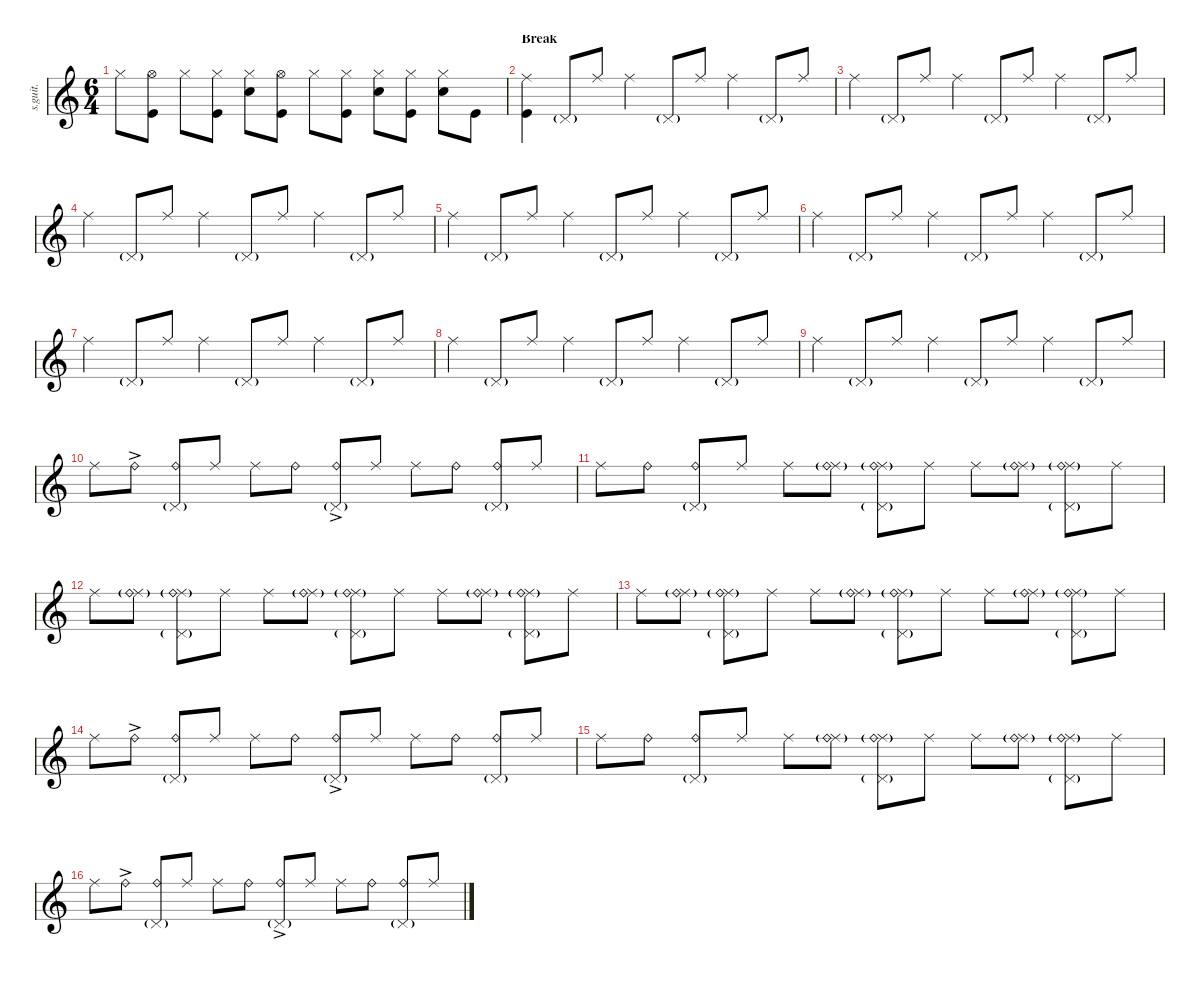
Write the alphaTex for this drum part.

\defaultSystemsLayout 4
\hideDynamics
\bracketExtendMode nobrackets
\track ("Steve Lamos" "s.guit.") {instrument percussion}
\staff {score}
\articulation defaults
\ts (6 4)
\tempo (144 hide)
\clef g2
\ks c "Hi-Hat (closed)".8{lyrics (0 "") lyrics (1 "") lyrics (2 "") lyrics (3 "") lyrics (4 "") dy mf}
("Hi-Hat (open)" "Kick (hit)").8{lyrics (0 "") lyrics (1 "") lyrics (2 "") lyrics (3 "") lyrics (4 "")} "Hi-Hat (closed)".8{lyrics (0 "") lyrics (1 "") lyrics (2 "") lyrics (3 "") lyrics (4 "")} ("Hi-Hat (closed)" "Kick (hit)").8{lyrics (0 "") lyrics (1 "") lyrics (2 "") lyrics (3 "") lyrics (4 "")} ("Hi-Hat (closed)" "Snare (hit) 2").8{lyrics (0 "") lyrics (1 "") lyrics (2 "") lyrics (3 "") lyrics (4 "")} ("Hi-Hat (open)" "Kick (hit)").8{lyrics (0 "") lyrics (1 "") lyrics (2 "") lyrics (3 "") lyrics (4 "")} "Hi-Hat (closed)".8{lyrics (0 "") lyrics (1 "") lyrics (2 "") lyrics (3 "") lyrics (4 "")} ("Hi-Hat (closed)" "Kick (hit)").8{lyrics (0 "") lyrics (1 "") lyrics (2 "") lyrics (3 "") lyrics (4 "")} ("Hi-Hat (closed)" "Snare (hit) 2").8{lyrics (0 "") lyrics (1 "") lyrics (2 "") lyrics (3 "") lyrics (4 "")} ("Hi-Hat (closed)" "Kick (hit)").8{lyrics (0 "") lyrics (1 "") lyrics (2 "") lyrics (3 "") lyrics (4 "") dy f} ("Hi-Hat (closed)" "Snare (hit) 2").8{lyrics (0 "") lyrics (1 "") lyrics (2 "") lyrics (3 "") lyrics (4 "")} "Kick (hit)".8{lyrics (0 "") lyrics (1 "") lyrics (2 "") lyrics (3 "") lyrics (4 "")} |
\section ("" "Break")
("Ride (middle)" "Kick (hit)").4{lyrics (0 "") lyrics (1 "") lyrics (2 "") lyrics (3 "") lyrics (4 "")} "Pedal Hi-Hat (hit)"{g}.8{lyrics (0 "") lyrics (1 "") lyrics (2 "") lyrics (3 "") lyrics (4 "")} "Ride (middle)".8{lyrics (0 "") lyrics (1 "") lyrics (2 "") lyrics (3 "") lyrics (4 "")} "Ride (middle)".4{lyrics (0 "") lyrics (1 "") lyrics (2 "") lyrics (3 "") lyrics (4 "")} "Pedal Hi-Hat (hit)"{g}.8{lyrics (0 "") lyrics (1 "") lyrics (2 "") lyrics (3 "") lyrics (4 "")} "Ride (middle)".8{lyrics (0 "") lyrics (1 "") lyrics (2 "") lyrics (3 "") lyrics (4 "")} "Ride (middle)".4{lyrics (0 "") lyrics (1 "") lyrics (2 "") lyrics (3 "") lyrics (4 "")} "Pedal Hi-Hat (hit)"{g}.8{lyrics (0 "") lyrics (1 "") lyrics (2 "") lyrics (3 "") lyrics (4 "")} "Ride (middle)".8{lyrics (0 "") lyrics (1 "") lyrics (2 "") lyrics (3 "") lyrics (4 "")} |
"Ride (middle)".4{lyrics (0 "") lyrics (1 "") lyrics (2 "") lyrics (3 "") lyrics (4 "")} "Pedal Hi-Hat (hit)"{g}.8{lyrics (0 "") lyrics (1 "") lyrics (2 "") lyrics (3 "") lyrics (4 "")} "Ride (middle)".8{lyrics (0 "") lyrics (1 "") lyrics (2 "") lyrics (3 "") lyrics (4 "")} "Ride (middle)".4{lyrics (0 "") lyrics (1 "") lyrics (2 "") lyrics (3 "") lyrics (4 "")} "Pedal Hi-Hat (hit)"{g}.8{lyrics (0 "") lyrics (1 "") lyrics (2 "") lyrics (3 "") lyrics (4 "")} "Ride (middle)".8{lyrics (0 "") lyrics (1 "") lyrics (2 "") lyrics (3 "") lyrics (4 "")} "Ride (middle)".4{lyrics (0 "") lyrics (1 "") lyrics (2 "") lyrics (3 "") lyrics (4 "")} "Pedal Hi-Hat (hit)"{g}.8{lyrics (0 "") lyrics (1 "") lyrics (2 "") lyrics (3 "") lyrics (4 "")} "Ride (middle)".8{lyrics (0 "") lyrics (1 "") lyrics (2 "") lyrics (3 "") lyrics (4 "")} |
"Ride (middle)".4{lyrics (0 "") lyrics (1 "") lyrics (2 "") lyrics (3 "") lyrics (4 "")} "Pedal Hi-Hat (hit)"{g}.8{lyrics (0 "") lyrics (1 "") lyrics (2 "") lyrics (3 "") lyrics (4 "")} "Ride (middle)".8{lyrics (0 "") lyrics (1 "") lyrics (2 "") lyrics (3 "") lyrics (4 "")} "Ride (middle)".4{lyrics (0 "") lyrics (1 "") lyrics (2 "") lyrics (3 "") lyrics (4 "")} "Pedal Hi-Hat (hit)"{g}.8{lyrics (0 "") lyrics (1 "") lyrics (2 "") lyrics (3 "") lyrics (4 "")} "Ride (middle)".8{lyrics (0 "") lyrics (1 "") lyrics (2 "") lyrics (3 "") lyrics (4 "")} "Ride (middle)".4{lyrics (0 "") lyrics (1 "") lyrics (2 "") lyrics (3 "") lyrics (4 "")} "Pedal Hi-Hat (hit)"{g}.8{lyrics (0 "") lyrics (1 "") lyrics (2 "") lyrics (3 "") lyrics (4 "")} "Ride (middle)".8{lyrics (0 "") lyrics (1 "") lyrics (2 "") lyrics (3 "") lyrics (4 "")} |
"Ride (middle)".4{lyrics (0 "") lyrics (1 "") lyrics (2 "") lyrics (3 "") lyrics (4 "")} "Pedal Hi-Hat (hit)"{g}.8{lyrics (0 "") lyrics (1 "") lyrics (2 "") lyrics (3 "") lyrics (4 "")} "Ride (middle)".8{lyrics (0 "") lyrics (1 "") lyrics (2 "") lyrics (3 "") lyrics (4 "")} "Ride (middle)".4{lyrics (0 "") lyrics (1 "") lyrics (2 "") lyrics (3 "") lyrics (4 "")} "Pedal Hi-Hat (hit)"{g}.8{lyrics (0 "") lyrics (1 "") lyrics (2 "") lyrics (3 "") lyrics (4 "")} "Ride (middle)".8{lyrics (0 "") lyrics (1 "") lyrics (2 "") lyrics (3 "") lyrics (4 "")} "Ride (middle)".4{lyrics (0 "") lyrics (1 "") lyrics (2 "") lyrics (3 "") lyrics (4 "")} "Pedal Hi-Hat (hit)"{g}.8{lyrics (0 "") lyrics (1 "") lyrics (2 "") lyrics (3 "") lyrics (4 "")} "Ride (middle)".8{lyrics (0 "") lyrics (1 "") lyrics (2 "") lyrics (3 "") lyrics (4 "")} |
"Ride (middle)".4{lyrics (0 "") lyrics (1 "") lyrics (2 "") lyrics (3 "") lyrics (4 "")} "Pedal Hi-Hat (hit)"{g}.8{lyrics (0 "") lyrics (1 "") lyrics (2 "") lyrics (3 "") lyrics (4 "")} "Ride (middle)".8{lyrics (0 "") lyrics (1 "") lyrics (2 "") lyrics (3 "") lyrics (4 "")} "Ride (middle)".4{lyrics (0 "") lyrics (1 "") lyrics (2 "") lyrics (3 "") lyrics (4 "")} "Pedal Hi-Hat (hit)"{g}.8{lyrics (0 "") lyrics (1 "") lyrics (2 "") lyrics (3 "") lyrics (4 "")} "Ride (middle)".8{lyrics (0 "") lyrics (1 "") lyrics (2 "") lyrics (3 "") lyrics (4 "")} "Ride (middle)".4{lyrics (0 "") lyrics (1 "") lyrics (2 "") lyrics (3 "") lyrics (4 "")} "Pedal Hi-Hat (hit)"{g}.8{lyrics (0 "") lyrics (1 "") lyrics (2 "") lyrics (3 "") lyrics (4 "")} "Ride (middle)".8{lyrics (0 "") lyrics (1 "") lyrics (2 "") lyrics (3 "") lyrics (4 "")} |
"Ride (middle)".4{lyrics (0 "") lyrics (1 "") lyrics (2 "") lyrics (3 "") lyrics (4 "")} "Pedal Hi-Hat (hit)"{g}.8{lyrics (0 "") lyrics (1 "") lyrics (2 "") lyrics (3 "") lyrics (4 "")} "Ride (middle)".8{lyrics (0 "") lyrics (1 "") lyrics (2 "") lyrics (3 "") lyrics (4 "")} "Ride (middle)".4{lyrics (0 "") lyrics (1 "") lyrics (2 "") lyrics (3 "") lyrics (4 "")} "Pedal Hi-Hat (hit)"{g}.8{lyrics (0 "") lyrics (1 "") lyrics (2 "") lyrics (3 "") lyrics (4 "")} "Ride (middle)".8{lyrics (0 "") lyrics (1 "") lyrics (2 "") lyrics (3 "") lyrics (4 "")} "Ride (middle)".4{lyrics (0 "") lyrics (1 "") lyrics (2 "") lyrics (3 "") lyrics (4 "")} "Pedal Hi-Hat (hit)"{g}.8{lyrics (0 "") lyrics (1 "") lyrics (2 "") lyrics (3 "") lyrics (4 "")} "Ride (middle)".8{lyrics (0 "") lyrics (1 "") lyrics (2 "") lyrics (3 "") lyrics (4 "")} |
"Ride (middle)".4{lyrics (0 "") lyrics (1 "") lyrics (2 "") lyrics (3 "") lyrics (4 "")} "Pedal Hi-Hat (hit)"{g}.8{lyrics (0 "") lyrics (1 "") lyrics (2 "") lyrics (3 "") lyrics (4 "")} "Ride (middle)".8{lyrics (0 "") lyrics (1 "") lyrics (2 "") lyrics (3 "") lyrics (4 "")} "Ride (middle)".4{lyrics (0 "") lyrics (1 "") lyrics (2 "") lyrics (3 "") lyrics (4 "")} "Pedal Hi-Hat (hit)"{g}.8{lyrics (0 "") lyrics (1 "") lyrics (2 "") lyrics (3 "") lyrics (4 "")} "Ride (middle)".8{lyrics (0 "") lyrics (1 "") lyrics (2 "") lyrics (3 "") lyrics (4 "")} "Ride (middle)".4{lyrics (0 "") lyrics (1 "") lyrics (2 "") lyrics (3 "") lyrics (4 "")} "Pedal Hi-Hat (hit)"{g}.8{lyrics (0 "") lyrics (1 "") lyrics (2 "") lyrics (3 "") lyrics (4 "")} "Ride (middle)".8{lyrics (0 "") lyrics (1 "") lyrics (2 "") lyrics (3 "") lyrics (4 "")} |
"Ride (middle)".4{lyrics (0 "") lyrics (1 "") lyrics (2 "") lyrics (3 "") lyrics (4 "")} "Pedal Hi-Hat (hit)"{g}.8{lyrics (0 "") lyrics (1 "") lyrics (2 "") lyrics (3 "") lyrics (4 "")} "Ride (middle)".8{lyrics (0 "") lyrics (1 "") lyrics (2 "") lyrics (3 "") lyrics (4 "")} "Ride (middle)".4{lyrics (0 "") lyrics (1 "") lyrics (2 "") lyrics (3 "") lyrics (4 "")} "Pedal Hi-Hat (hit)"{g}.8{lyrics (0 "") lyrics (1 "") lyrics (2 "") lyrics (3 "") lyrics (4 "")} "Ride (middle)".8{lyrics (0 "") lyrics (1 "") lyrics (2 "") lyrics (3 "") lyrics (4 "")} "Ride (middle)".4{lyrics (0 "") lyrics (1 "") lyrics (2 "") lyrics (3 "") lyrics (4 "")} "Pedal Hi-Hat (hit)"{g}.8{lyrics (0 "") lyrics (1 "") lyrics (2 "") lyrics (3 "") lyrics (4 "")} "Ride (middle)".8{lyrics (0 "") lyrics (1 "") lyrics (2 "") lyrics (3 "") lyrics (4 "")} |
"Ride (middle)".8{lyrics (0 "") lyrics (1 "") lyrics (2 "") lyrics (3 "") lyrics (4 "")} "Ride (bell)"{ac}.8{lyrics (0 "") lyrics (1 "") lyrics (2 "") lyrics (3 "") lyrics (4 "") dy mf} ("Pedal Hi-Hat (hit)"{g} "Ride (bell)").8{lyrics (0 "") lyrics (1 "") lyrics (2 "") lyrics (3 "") lyrics (4 "") dy f} "Ride (middle)".8{lyrics (0 "") lyrics (1 "") lyrics (2 "") lyrics (3 "") lyrics (4 "")} "Ride (middle)".8{lyrics (0 "") lyrics (1 "") lyrics (2 "") lyrics (3 "") lyrics (4 "")} "Ride (bell)".8{lyrics (0 "") lyrics (1 "") lyrics (2 "") lyrics (3 "") lyrics (4 "")} ("Pedal Hi-Hat (hit)"{g} "Ride (bell)"{ac}).8{lyrics (0 "") lyrics (1 "") lyrics (2 "") lyrics (3 "") lyrics (4 "")} "Ride (middle)".8{lyrics (0 "") lyrics (1 "") lyrics (2 "") lyrics (3 "") lyrics (4 "")} "Ride (middle)".8{lyrics (0 "") lyrics (1 "") lyrics (2 "") lyrics (3 "") lyrics (4 "")} "Ride (bell)".8{lyrics (0 "") lyrics (1 "") lyrics (2 "") lyrics (3 "") lyrics (4 "")} ("Pedal Hi-Hat (hit)"{g} "Ride (bell)").8{lyrics (0 "") lyrics (1 "") lyrics (2 "") lyrics (3 "") lyrics (4 "")} "Ride (middle)".8{lyrics (0 "") lyrics (1 "") lyrics (2 "") lyrics (3 "") lyrics (4 "")} |
"Ride (middle)".8{lyrics (0 "") lyrics (1 "") lyrics (2 "") lyrics (3 "") lyrics (4 "")} "Ride (bell)".8{lyrics (0 "") lyrics (1 "") lyrics (2 "") lyrics (3 "") lyrics (4 "")} ("Pedal Hi-Hat (hit)"{g} "Ride (bell)").8{lyrics (0 "") lyrics (1 "") lyrics (2 "") lyrics (3 "") lyrics (4 "")} "Ride (middle)".8{lyrics (0 "") lyrics (1 "") lyrics (2 "") lyrics (3 "") lyrics (4 "")} "Ride (middle)".8{lyrics (0 "") lyrics (1 "") lyrics (2 "") lyrics (3 "") lyrics (4 "")} ("Ride (middle)"{g} "Ride (bell)").8{lyrics (0 "") lyrics (1 "") lyrics (2 "") lyrics (3 "") lyrics (4 "")} ("Ride (middle)"{g} "Ride (bell)" "Pedal Hi-Hat (hit)"{g}).8{lyrics (0 "") lyrics (1 "") lyrics (2 "") lyrics (3 "") lyrics (4 "")} "Ride (middle)".8{lyrics (0 "") lyrics (1 "") lyrics (2 "") lyrics (3 "") lyrics (4 "")} "Ride (middle)".8{lyrics (0 "") lyrics (1 "") lyrics (2 "") lyrics (3 "") lyrics (4 "")} ("Ride (middle)"{g} "Ride (bell)").8{lyrics (0 "") lyrics (1 "") lyrics (2 "") lyrics (3 "") lyrics (4 "")} ("Ride (middle)"{g} "Ride (bell)" "Pedal Hi-Hat (hit)"{g}).8{lyrics (0 "") lyrics (1 "") lyrics (2 "") lyrics (3 "") lyrics (4 "")} "Ride (middle)".8{lyrics (0 "") lyrics (1 "") lyrics (2 "") lyrics (3 "") lyrics (4 "")} |
"Ride (middle)".8{lyrics (0 "") lyrics (1 "") lyrics (2 "") lyrics (3 "") lyrics (4 "")} ("Ride (middle)"{g} "Ride (bell)").8{lyrics (0 "") lyrics (1 "") lyrics (2 "") lyrics (3 "") lyrics (4 "")} ("Ride (middle)"{g} "Ride (bell)" "Pedal Hi-Hat (hit)"{g}).8{lyrics (0 "") lyrics (1 "") lyrics (2 "") lyrics (3 "") lyrics (4 "")} "Ride (middle)".8{lyrics (0 "") lyrics (1 "") lyrics (2 "") lyrics (3 "") lyrics (4 "")} "Ride (middle)".8{lyrics (0 "") lyrics (1 "") lyrics (2 "") lyrics (3 "") lyrics (4 "")} ("Ride (middle)"{g} "Ride (bell)").8{lyrics (0 "") lyrics (1 "") lyrics (2 "") lyrics (3 "") lyrics (4 "")} ("Ride (middle)"{g} "Ride (bell)" "Pedal Hi-Hat (hit)"{g}).8{lyrics (0 "") lyrics (1 "") lyrics (2 "") lyrics (3 "") lyrics (4 "")} "Ride (middle)".8{lyrics (0 "") lyrics (1 "") lyrics (2 "") lyrics (3 "") lyrics (4 "")} "Ride (middle)".8{lyrics (0 "") lyrics (1 "") lyrics (2 "") lyrics (3 "") lyrics (4 "")} ("Ride (middle)"{g} "Ride (bell)").8{lyrics (0 "") lyrics (1 "") lyrics (2 "") lyrics (3 "") lyrics (4 "")} ("Ride (middle)"{g} "Ride (bell)" "Pedal Hi-Hat (hit)"{g}).8{lyrics (0 "") lyrics (1 "") lyrics (2 "") lyrics (3 "") lyrics (4 "")} "Ride (middle)".8{lyrics (0 "") lyrics (1 "") lyrics (2 "") lyrics (3 "") lyrics (4 "")} |
"Ride (middle)".8{lyrics (0 "") lyrics (1 "") lyrics (2 "") lyrics (3 "") lyrics (4 "")} ("Ride (middle)"{g} "Ride (bell)").8{lyrics (0 "") lyrics (1 "") lyrics (2 "") lyrics (3 "") lyrics (4 "")} ("Ride (middle)"{g} "Ride (bell)" "Pedal Hi-Hat (hit)"{g}).8{lyrics (0 "") lyrics (1 "") lyrics (2 "") lyrics (3 "") lyrics (4 "")} "Ride (middle)".8{lyrics (0 "") lyrics (1 "") lyrics (2 "") lyrics (3 "") lyrics (4 "")} "Ride (middle)".8{lyrics (0 "") lyrics (1 "") lyrics (2 "") lyrics (3 "") lyrics (4 "")} ("Ride (middle)"{g} "Ride (bell)").8{lyrics (0 "") lyrics (1 "") lyrics (2 "") lyrics (3 "") lyrics (4 "")} ("Ride (middle)"{g} "Ride (bell)" "Pedal Hi-Hat (hit)"{g}).8{lyrics (0 "") lyrics (1 "") lyrics (2 "") lyrics (3 "") lyrics (4 "")} "Ride (middle)".8{lyrics (0 "") lyrics (1 "") lyrics (2 "") lyrics (3 "") lyrics (4 "")} "Ride (middle)".8{lyrics (0 "") lyrics (1 "") lyrics (2 "") lyrics (3 "") lyrics (4 "")} ("Ride (middle)"{g} "Ride (bell)").8{lyrics (0 "") lyrics (1 "") lyrics (2 "") lyrics (3 "") lyrics (4 "")} ("Ride (middle)"{g} "Ride (bell)" "Pedal Hi-Hat (hit)"{g}).8{lyrics (0 "") lyrics (1 "") lyrics (2 "") lyrics (3 "") lyrics (4 "")} "Ride (middle)".8{lyrics (0 "") lyrics (1 "") lyrics (2 "") lyrics (3 "") lyrics (4 "")} |
"Ride (middle)".8{lyrics (0 "") lyrics (1 "") lyrics (2 "") lyrics (3 "") lyrics (4 "")} "Ride (bell)"{ac}.8{lyrics (0 "") lyrics (1 "") lyrics (2 "") lyrics (3 "") lyrics (4 "") dy mf} ("Pedal Hi-Hat (hit)"{g} "Ride (bell)").8{lyrics (0 "") lyrics (1 "") lyrics (2 "") lyrics (3 "") lyrics (4 "") dy f} "Ride (middle)".8{lyrics (0 "") lyrics (1 "") lyrics (2 "") lyrics (3 "") lyrics (4 "")} "Ride (middle)".8{lyrics (0 "") lyrics (1 "") lyrics (2 "") lyrics (3 "") lyrics (4 "")} "Ride (bell)".8{lyrics (0 "") lyrics (1 "") lyrics (2 "") lyrics (3 "") lyrics (4 "")} ("Pedal Hi-Hat (hit)"{g} "Ride (bell)"{ac}).8{lyrics (0 "") lyrics (1 "") lyrics (2 "") lyrics (3 "") lyrics (4 "")} "Ride (middle)".8{lyrics (0 "") lyrics (1 "") lyrics (2 "") lyrics (3 "") lyrics (4 "")} "Ride (middle)".8{lyrics (0 "") lyrics (1 "") lyrics (2 "") lyrics (3 "") lyrics (4 "")} "Ride (bell)".8{lyrics (0 "") lyrics (1 "") lyrics (2 "") lyrics (3 "") lyrics (4 "")} ("Pedal Hi-Hat (hit)"{g} "Ride (bell)").8{lyrics (0 "") lyrics (1 "") lyrics (2 "") lyrics (3 "") lyrics (4 "")} "Ride (middle)".8{lyrics (0 "") lyrics (1 "") lyrics (2 "") lyrics (3 "") lyrics (4 "")} |
"Ride (middle)".8{lyrics (0 "") lyrics (1 "") lyrics (2 "") lyrics (3 "") lyrics (4 "")} "Ride (bell)".8{lyrics (0 "") lyrics (1 "") lyrics (2 "") lyrics (3 "") lyrics (4 "")} ("Pedal Hi-Hat (hit)"{g} "Ride (bell)").8{lyrics (0 "") lyrics (1 "") lyrics (2 "") lyrics (3 "") lyrics (4 "")} "Ride (middle)".8{lyrics (0 "") lyrics (1 "") lyrics (2 "") lyrics (3 "") lyrics (4 "")} "Ride (middle)".8{lyrics (0 "") lyrics (1 "") lyrics (2 "") lyrics (3 "") lyrics (4 "")} ("Ride (middle)"{g} "Ride (bell)").8{lyrics (0 "") lyrics (1 "") lyrics (2 "") lyrics (3 "") lyrics (4 "")} ("Ride (middle)"{g} "Ride (bell)" "Pedal Hi-Hat (hit)"{g}).8{lyrics (0 "") lyrics (1 "") lyrics (2 "") lyrics (3 "") lyrics (4 "")} "Ride (middle)".8{lyrics (0 "") lyrics (1 "") lyrics (2 "") lyrics (3 "") lyrics (4 "")} "Ride (middle)".8{lyrics (0 "") lyrics (1 "") lyrics (2 "") lyrics (3 "") lyrics (4 "")} ("Ride (middle)"{g} "Ride (bell)").8{lyrics (0 "") lyrics (1 "") lyrics (2 "") lyrics (3 "") lyrics (4 "")} ("Ride (middle)"{g} "Ride (bell)" "Pedal Hi-Hat (hit)"{g}).8{lyrics (0 "") lyrics (1 "") lyrics (2 "") lyrics (3 "") lyrics (4 "")} "Ride (middle)".8{lyrics (0 "") lyrics (1 "") lyrics (2 "") lyrics (3 "") lyrics (4 "")} |
"Ride (middle)".8{lyrics (0 "") lyrics (1 "") lyrics (2 "") lyrics (3 "") lyrics (4 "")} "Ride (bell)"{ac}.8{lyrics (0 "") lyrics (1 "") lyrics (2 "") lyrics (3 "") lyrics (4 "") dy mf} ("Pedal Hi-Hat (hit)"{g} "Ride (bell)").8{lyrics (0 "") lyrics (1 "") lyrics (2 "") lyrics (3 "") lyrics (4 "") dy f} "Ride (middle)".8{lyrics (0 "") lyrics (1 "") lyrics (2 "") lyrics (3 "") lyrics (4 "")} "Ride (middle)".8{lyrics (0 "") lyrics (1 "") lyrics (2 "") lyrics (3 "") lyrics (4 "")} "Ride (bell)".8{lyrics (0 "") lyrics (1 "") lyrics (2 "") lyrics (3 "") lyrics (4 "")} ("Pedal Hi-Hat (hit)"{g} "Ride (bell)"{ac}).8{lyrics (0 "") lyrics (1 "") lyrics (2 "") lyrics (3 "") lyrics (4 "")} "Ride (middle)".8{lyrics (0 "") lyrics (1 "") lyrics (2 "") lyrics (3 "") lyrics (4 "")} "Ride (middle)".8{lyrics (0 "") lyrics (1 "") lyrics (2 "") lyrics (3 "") lyrics (4 "")} "Ride (bell)".8{lyrics (0 "") lyrics (1 "") lyrics (2 "") lyrics (3 "") lyrics (4 "")} ("Pedal Hi-Hat (hit)"{g} "Ride (bell)").8{lyrics (0 "") lyrics (1 "") lyrics (2 "") lyrics (3 "") lyrics (4 "")} "Ride (middle)".8{lyrics (0 "") lyrics (1 "") lyrics (2 "") lyrics (3 "") lyrics (4 "")}
